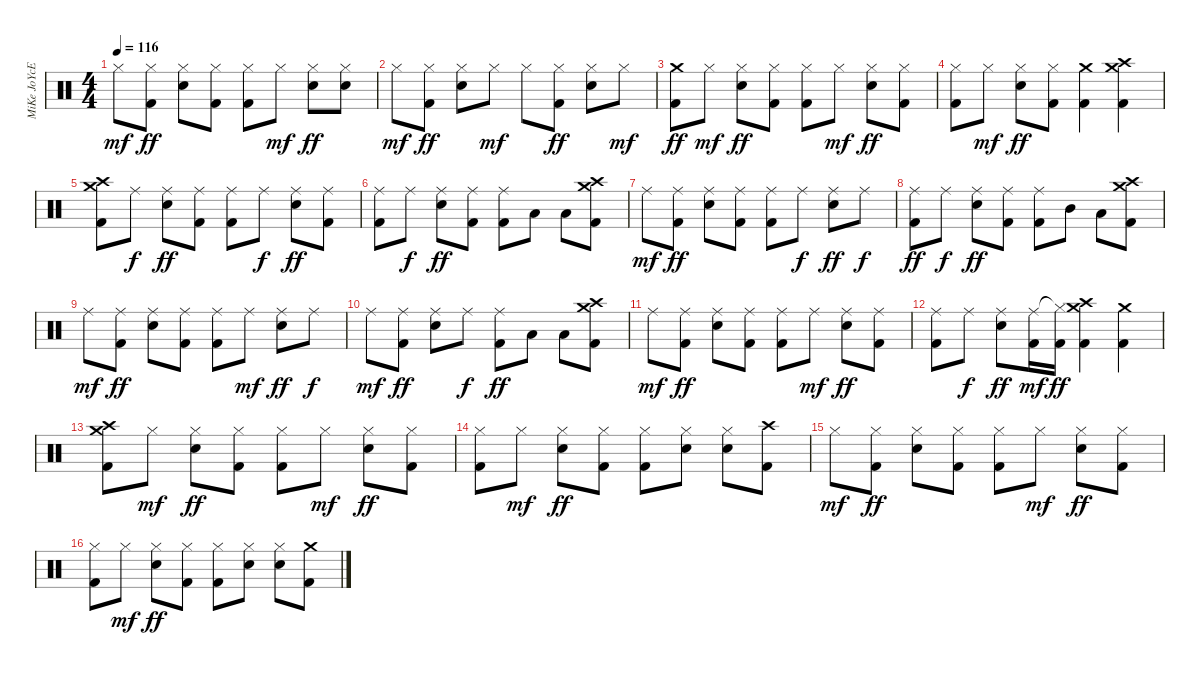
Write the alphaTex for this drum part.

\track ("MiKe JoYcE" "MiKe JoYcE") {instrument percussion}
\staff {score}
\articulation defaults
\ts (4 4)
\tempo 116
\clef neutral
\ks c "Hi-Hat (closed)".8{dy mf}
("Hi-Hat (closed)" "Kick (hit) 2").8{dy ff} ("Hi-Hat (closed)" "Electric Snare (hit)").8 ("Hi-Hat (closed)" "Kick (hit) 2").8 ("Hi-Hat (closed)" "Kick (hit) 2").8 "Hi-Hat (closed)".8{dy mf} ("Hi-Hat (closed)" "Electric Snare (hit)").8{dy ff} ("Hi-Hat (closed)" "Electric Snare (hit)").8 |
"Hi-Hat (closed)".8{dy mf} ("Hi-Hat (closed)" "Kick (hit) 2").8{dy ff} ("Hi-Hat (closed)" "Electric Snare (hit)").8 "Hi-Hat (closed)".8{dy mf} "Hi-Hat (closed)".8 ("Hi-Hat (closed)" "Kick (hit) 2").8{dy ff} ("Hi-Hat (closed)" "Electric Snare (hit)").8 "Hi-Hat (closed)".8{dy mf} |
("Crash medium (hit)" "Kick (hit) 2").8{dy ff} "Hi-Hat (closed)".8{dy mf} ("Hi-Hat (closed)" "Electric Snare (hit)").8{dy ff} ("Hi-Hat (closed)" "Kick (hit) 2").8 ("Hi-Hat (closed)" "Kick (hit) 2").8 "Hi-Hat (closed)".8{dy mf} ("Hi-Hat (closed)" "Electric Snare (hit)").8{dy ff} ("Hi-Hat (closed)" "Kick (hit) 2").8 |
("Hi-Hat (closed)" "Kick (hit) 2").8 "Hi-Hat (closed)".8{dy mf} ("Hi-Hat (closed)" "Electric Snare (hit)").8{dy ff} ("Hi-Hat (closed)" "Kick (hit) 2").8 ("Crash medium (hit)" "Kick (hit) 2").4 ("Crash medium (hit)" "Crash high (hit)" "Kick (hit) 2").4 |
("Crash high (hit)" "Crash medium (hit)" "Kick (hit) 2").8 "Ride (middle)".8{dy f} ("Ride (middle)" "Electric Snare (hit)").8{dy ff} ("Ride (middle)" "Kick (hit) 2").8 ("Ride (middle)" "Kick (hit) 2").8 "Ride (middle)".8{dy f} ("Ride (middle)" "Electric Snare (hit)").8{dy ff} ("Ride (middle)" "Kick (hit) 2").8 |
("Ride (middle)" "Kick (hit) 2").8 "Ride (middle)".8{dy f} ("Ride (middle)" "Electric Snare (hit)").8{dy ff} ("Ride (middle)" "Kick (hit) 2").8 ("Ride (middle)" "Kick (hit) 2").8 "Low Tom (hit)".8 "Low Floor Tom (hit)".8 ("Crash high (hit)" "Crash medium (hit)" "Kick (hit) 2").8 |
"Ride (middle)".8{dy mf} ("Ride (middle)" "Kick (hit) 2").8{dy ff} ("Ride (middle)" "Electric Snare (hit)").8 ("Ride (middle)" "Kick (hit) 2").8 ("Ride (middle)" "Kick (hit) 2").8 "Ride (middle)".8{dy f} ("Ride (middle)" "Electric Snare (hit)").8{dy ff} "Ride (middle)".8{dy f} |
("Ride (middle)" "Kick (hit) 2").8{dy ff} "Ride (middle)".8{dy f} ("Ride (middle)" "Electric Snare (hit)").8{dy ff} ("Ride (middle)" "Kick (hit) 2").8 ("Ride (middle)" "Kick (hit) 2").8 "Mid Tom (hit)".8 "Low Tom (hit)".8 ("Crash high (hit)" "Crash medium (hit)" "Kick (hit) 2").8 |
"Ride (middle)".8{dy mf} ("Ride (middle)" "Kick (hit) 2").8{dy ff} ("Ride (middle)" "Electric Snare (hit)").8 ("Ride (middle)" "Kick (hit) 2").8 ("Ride (middle)" "Kick (hit) 2").8 "Ride (middle)".8{dy mf} ("Ride (middle)" "Electric Snare (hit)").8{dy ff} "Ride (middle)".8{dy f} |
"Ride (middle)".8{dy mf} ("Ride (middle)" "Kick (hit) 2").8{dy ff} ("Ride (middle)" "Electric Snare (hit)").8 "Ride (middle)".8{dy f} ("Ride (middle)" "Kick (hit) 2").8{dy ff} "Low Tom (hit)".8 "Low Tom (hit)".8 ("Crash high (hit)" "Crash medium (hit)" "Kick (hit) 2").8 |
"Ride (middle)".8{dy mf} ("Ride (middle)" "Kick (hit) 2").8{dy ff} ("Ride (middle)" "Electric Snare (hit)").8 ("Ride (middle)" "Kick (hit) 2").8 ("Ride (middle)" "Kick (hit) 2").8 "Ride (middle)".8{dy mf} ("Ride (middle)" "Electric Snare (hit)").8{dy ff} ("Ride (middle)" "Kick (hit) 2").8 |
("Ride (middle)" "Kick (hit) 2").8 "Ride (middle)".8{dy f} ("Ride (middle)" "Electric Snare (hit)").8{dy ff} ("Ride (middle)" "Kick (hit) 2").16{dy mf} ("Hi-Hat (closed)"{t} "Kick (hit) 2").16{dy ff} ("Crash high (hit)" "Crash medium (hit)" "Kick (hit) 2").4 ("Crash medium (hit)" "Kick (hit) 2").4 |
("Crash high (hit)" "Crash medium (hit)" "Kick (hit) 2").8 "Hi-Hat (closed)".8{dy mf} ("Hi-Hat (closed)" "Electric Snare (hit)").8{dy ff} ("Hi-Hat (closed)" "Kick (hit) 2").8 ("Hi-Hat (closed)" "Kick (hit) 2").8 "Hi-Hat (closed)".8{dy mf} ("Hi-Hat (closed)" "Electric Snare (hit)").8{dy ff} ("Hi-Hat (closed)" "Kick (hit) 2").8 |
("Hi-Hat (closed)" "Kick (hit) 2").8 "Hi-Hat (closed)".8{dy mf} ("Hi-Hat (closed)" "Electric Snare (hit)").8{dy ff} ("Hi-Hat (closed)" "Kick (hit) 2").8 ("Hi-Hat (closed)" "Kick (hit) 2").8 ("Hi-Hat (closed)" "Electric Snare (hit)").8 ("Hi-Hat (closed)" "Electric Snare (hit)").8 ("Crash high (hit)" "Kick (hit) 2").8 |
"Hi-Hat (closed)".8{dy mf} ("Hi-Hat (closed)" "Kick (hit) 2").8{dy ff} ("Hi-Hat (closed)" "Electric Snare (hit)").8 ("Hi-Hat (closed)" "Kick (hit) 2").8 ("Hi-Hat (closed)" "Kick (hit) 2").8 "Hi-Hat (closed)".8{dy mf} ("Hi-Hat (closed)" "Electric Snare (hit)").8{dy ff} ("Hi-Hat (closed)" "Kick (hit) 2").8 |
("Hi-Hat (closed)" "Kick (hit) 2").8 "Hi-Hat (closed)".8{dy mf} ("Hi-Hat (closed)" "Electric Snare (hit)").8{dy ff} ("Hi-Hat (closed)" "Kick (hit) 2").8 ("Hi-Hat (closed)" "Kick (hit) 2").8 ("Hi-Hat (closed)" "Electric Snare (hit)").8 ("Hi-Hat (closed)" "Electric Snare (hit)").8 ("Crash medium (hit)" "Kick (hit) 2").8
